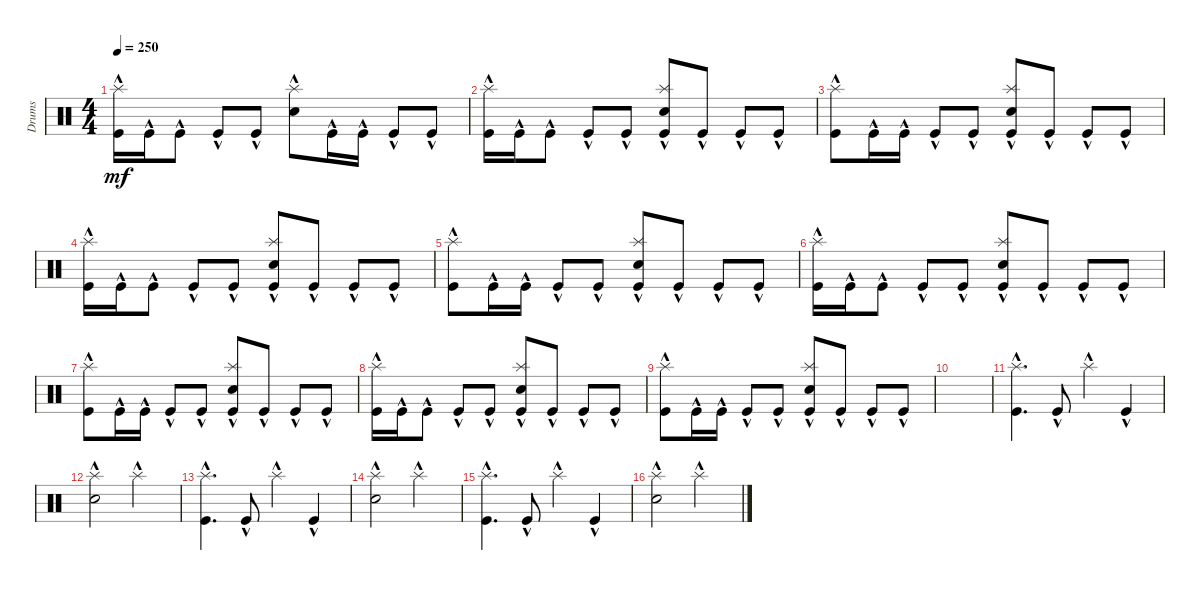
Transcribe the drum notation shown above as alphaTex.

\track ("Drums" "Drums") {instrument percussion}
\staff {score}
\articulation defaults
\ts (4 4)
\tempo 250
\clef neutral
\ks c
("Kick (hit)"{hac} "Splash (hit)"{hac}).16{dy mf} "Kick (hit)"{hac}.16 "Kick (hit)"{hac}.8 "Kick (hit)"{hac}.8 "Kick (hit)"{hac}.8 ("Snare (hit) 2"{hac} "Splash (hit)"{hac}).8 "Kick (hit)"{hac}.16 "Kick (hit)"{hac}.16 "Kick (hit)"{hac}.8 "Kick (hit)"{hac}.8 |
("Kick (hit)"{hac} "Splash (hit)"{hac}).16 "Kick (hit)"{hac}.16 "Kick (hit)"{hac}.8 "Kick (hit)"{hac}.8 "Kick (hit)"{hac}.8 ("Kick (hit)"{hac} "Snare (hit) 2"{hac} "Splash (hit)"{hac}).8 "Kick (hit)"{hac}.8 "Kick (hit)"{hac}.8 "Kick (hit)"{hac}.8 |
("Kick (hit)"{hac} "Splash (hit)"{hac}).8 "Kick (hit)"{hac}.16 "Kick (hit)"{hac}.16 "Kick (hit)"{hac}.8 "Kick (hit)"{hac}.8 ("Kick (hit)"{hac} "Snare (hit) 2"{hac} "Splash (hit)"{hac}).8 "Kick (hit)"{hac}.8 "Kick (hit)"{hac}.8 "Kick (hit)"{hac}.8 |
("Kick (hit)"{hac} "Splash (hit)"{hac}).16 "Kick (hit)"{hac}.16 "Kick (hit)"{hac}.8 "Kick (hit)"{hac}.8 "Kick (hit)"{hac}.8 ("Kick (hit)"{hac} "Snare (hit) 2"{hac} "Splash (hit)"{hac}).8 "Kick (hit)"{hac}.8 "Kick (hit)"{hac}.8 "Kick (hit)"{hac}.8 |
("Kick (hit)"{hac} "Splash (hit)"{hac}).8 "Kick (hit)"{hac}.16 "Kick (hit)"{hac}.16 "Kick (hit)"{hac}.8 "Kick (hit)"{hac}.8 ("Kick (hit)"{hac} "Snare (hit) 2"{hac} "Splash (hit)"{hac}).8 "Kick (hit)"{hac}.8 "Kick (hit)"{hac}.8 "Kick (hit)"{hac}.8 |
("Kick (hit)"{hac} "Splash (hit)"{hac}).16 "Kick (hit)"{hac}.16 "Kick (hit)"{hac}.8 "Kick (hit)"{hac}.8 "Kick (hit)"{hac}.8 ("Kick (hit)"{hac} "Snare (hit) 2"{hac} "Splash (hit)"{hac}).8 "Kick (hit)"{hac}.8 "Kick (hit)"{hac}.8 "Kick (hit)"{hac}.8 |
("Kick (hit)"{hac} "Splash (hit)"{hac}).8 "Kick (hit)"{hac}.16 "Kick (hit)"{hac}.16 "Kick (hit)"{hac}.8 "Kick (hit)"{hac}.8 ("Kick (hit)"{hac} "Snare (hit) 2"{hac} "Splash (hit)"{hac}).8 "Kick (hit)"{hac}.8 "Kick (hit)"{hac}.8 "Kick (hit)"{hac}.8 |
("Kick (hit)"{hac} "Splash (hit)"{hac}).16 "Kick (hit)"{hac}.16 "Kick (hit)"{hac}.8 "Kick (hit)"{hac}.8 "Kick (hit)"{hac}.8 ("Kick (hit)"{hac} "Snare (hit) 2"{hac} "Splash (hit)"{hac}).8 "Kick (hit)"{hac}.8 "Kick (hit)"{hac}.8 "Kick (hit)"{hac}.8 |
("Kick (hit)"{hac} "Splash (hit)"{hac}).8 "Kick (hit)"{hac}.16 "Kick (hit)"{hac}.16 "Kick (hit)"{hac}.8 "Kick (hit)"{hac}.8 ("Kick (hit)"{hac} "Snare (hit) 2"{hac} "Splash (hit)"{hac}).8 "Kick (hit)"{hac}.8 "Kick (hit)"{hac}.8 "Kick (hit)"{hac}.8 |
|
("Kick (hit)"{hac} "Splash (hit)"{hac}).4{d} "Kick (hit)"{hac}.8 "Splash (hit)"{hac}.4 "Kick (hit)"{hac}.4 |
("Snare (hit) 2"{hac} "Splash (hit)"{hac}).2 "Splash (hit)"{hac}.2 |
("Kick (hit)"{hac} "Splash (hit)"{hac}).4{d} "Kick (hit)"{hac}.8 "Splash (hit)"{hac}.4 "Kick (hit)"{hac}.4 |
("Snare (hit) 2"{hac} "Splash (hit)"{hac}).2 "Splash (hit)"{hac}.2 |
("Kick (hit)"{hac} "Splash (hit)"{hac}).4{d} "Kick (hit)"{hac}.8 "Splash (hit)"{hac}.4 "Kick (hit)"{hac}.4 |
("Snare (hit) 2"{hac} "Splash (hit)"{hac}).2 "Splash (hit)"{hac}.2
